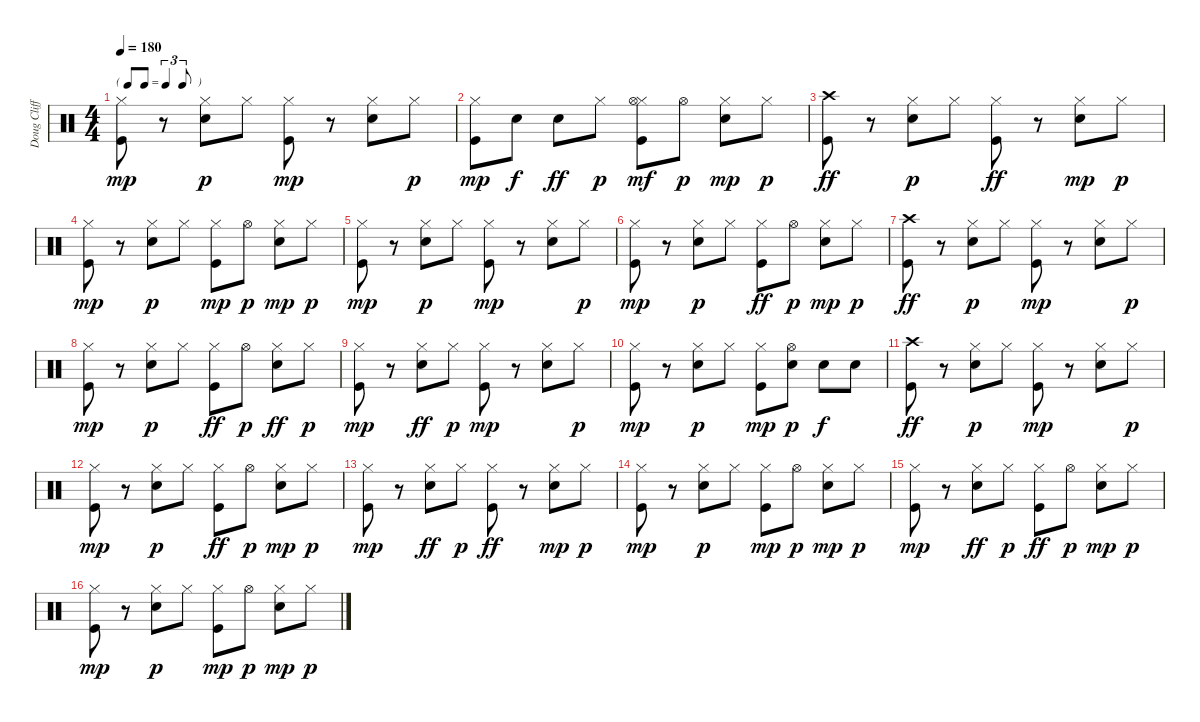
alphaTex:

\track ("Doug Clifford" "Doug Cliff") {instrument percussion}
\staff {score}
\articulation defaults
\ts (4 4)
\tf triplet8th
\tempo 180
\clef neutral
\ks c
("Kick (hit)" "Hi-Hat (closed)").8{dy mp} r.8 ("Snare (hit) 2" "Hi-Hat (closed)").8{dy p} "Hi-Hat (closed)".8 ("Kick (hit)" "Hi-Hat (closed)").8{dy mp} r.8 ("Snare (hit) 2" "Hi-Hat (closed)").8 "Hi-Hat (closed)".8{dy p} |
("Kick (hit)" "Hi-Hat (closed)").8{dy mp} "Snare (hit) 2".8{dy f} "Snare (hit) 2".8{dy ff} "Hi-Hat (closed)".8{dy p} ("Kick (hit)" "Hi-Hat (closed)" "Hi-Hat (open)").8{dy mf} "Hi-Hat (open)".8{dy p} ("Snare (hit) 2" "Hi-Hat (closed)").8{dy mp} "Hi-Hat (closed)".8{dy p} |
("Crash high (hit)" "Kick (hit)").8{dy ff} r.8 ("Snare (hit) 2" "Hi-Hat (closed)").8{dy p} "Hi-Hat (closed)".8 ("Hi-Hat (closed)" "Kick (hit)").8{dy ff} r.8 ("Snare (hit) 2" "Hi-Hat (closed)").8{dy mp} "Hi-Hat (closed)".8{dy p} |
("Kick (hit)" "Hi-Hat (closed)").8{dy mp} r.8 ("Snare (hit) 2" "Hi-Hat (closed)").8{dy p} "Hi-Hat (closed)".8 ("Kick (hit)" "Hi-Hat (closed)").8{dy mp} "Hi-Hat (open)".8{dy p} ("Snare (hit) 2" "Hi-Hat (closed)").8{dy mp} "Hi-Hat (closed)".8{dy p} |
("Kick (hit)" "Hi-Hat (closed)").8{dy mp} r.8 ("Snare (hit) 2" "Hi-Hat (closed)").8{dy p} "Hi-Hat (closed)".8 ("Kick (hit)" "Hi-Hat (closed)").8{dy mp} r.8 ("Snare (hit) 2" "Hi-Hat (closed)").8 "Hi-Hat (closed)".8{dy p} |
("Kick (hit)" "Hi-Hat (closed)").8{dy mp} r.8 ("Snare (hit) 2" "Hi-Hat (closed)").8{dy p} "Hi-Hat (closed)".8 ("Hi-Hat (closed)" "Kick (hit)").8{dy ff} "Hi-Hat (open)".8{dy p} ("Snare (hit) 2" "Hi-Hat (closed)").8{dy mp} "Hi-Hat (closed)".8{dy p} |
("Crash high (hit)" "Kick (hit)").8{dy ff} r.8 ("Snare (hit) 2" "Hi-Hat (closed)").8{dy p} "Hi-Hat (closed)".8 ("Kick (hit)" "Hi-Hat (closed)").8{dy mp} r.8 ("Snare (hit) 2" "Hi-Hat (closed)").8 "Hi-Hat (closed)".8{dy p} |
("Kick (hit)" "Hi-Hat (closed)").8{dy mp} r.8 ("Snare (hit) 2" "Hi-Hat (closed)").8{dy p} "Hi-Hat (closed)".8 ("Hi-Hat (closed)" "Kick (hit)").8{dy ff} "Hi-Hat (open)".8{dy p} ("Hi-Hat (closed)" "Snare (hit) 2").8{dy ff} "Hi-Hat (closed)".8{dy p} |
("Kick (hit)" "Hi-Hat (closed)").8{dy mp} r.8 ("Hi-Hat (closed)" "Snare (hit) 2").8{dy ff} "Hi-Hat (closed)".8{dy p} ("Kick (hit)" "Hi-Hat (closed)").8{dy mp} r.8 ("Snare (hit) 2" "Hi-Hat (closed)").8 "Hi-Hat (closed)".8{dy p} |
("Kick (hit)" "Hi-Hat (closed)").8{dy mp} r.8 ("Snare (hit) 2" "Hi-Hat (closed)").8{dy p} "Hi-Hat (closed)".8 ("Kick (hit)" "Hi-Hat (closed)").8{dy mp} ("Hi-Hat (open)" "Snare (hit) 2").8{dy p} "Snare (hit) 2".8{dy f} "Snare (hit) 2".8 |
("Crash high (hit)" "Kick (hit)").8{dy ff} r.8 ("Snare (hit) 2" "Hi-Hat (closed)").8{dy p} "Hi-Hat (closed)".8 ("Kick (hit)" "Hi-Hat (closed)").8{dy mp} r.8 ("Snare (hit) 2" "Hi-Hat (closed)").8 "Hi-Hat (closed)".8{dy p} |
("Kick (hit)" "Hi-Hat (closed)").8{dy mp} r.8 ("Snare (hit) 2" "Hi-Hat (closed)").8{dy p} "Hi-Hat (closed)".8 ("Hi-Hat (closed)" "Kick (hit)").8{dy ff} "Hi-Hat (open)".8{dy p} ("Snare (hit) 2" "Hi-Hat (closed)").8{dy mp} "Hi-Hat (closed)".8{dy p} |
("Kick (hit)" "Hi-Hat (closed)").8{dy mp} r.8 ("Hi-Hat (closed)" "Snare (hit) 2").8{dy ff} "Hi-Hat (closed)".8{dy p} ("Hi-Hat (closed)" "Kick (hit)").8{dy ff} r.8 ("Snare (hit) 2" "Hi-Hat (closed)").8{dy mp} "Hi-Hat (closed)".8{dy p} |
("Kick (hit)" "Hi-Hat (closed)").8{dy mp} r.8 ("Snare (hit) 2" "Hi-Hat (closed)").8{dy p} "Hi-Hat (closed)".8 ("Kick (hit)" "Hi-Hat (closed)").8{dy mp} "Hi-Hat (open)".8{dy p} ("Snare (hit) 2" "Hi-Hat (closed)").8{dy mp} "Hi-Hat (closed)".8{dy p} |
("Kick (hit)" "Hi-Hat (closed)").8{dy mp} r.8 ("Hi-Hat (closed)" "Snare (hit) 2").8{dy ff} "Hi-Hat (closed)".8{dy p} ("Hi-Hat (closed)" "Kick (hit)").8{dy ff} "Hi-Hat (open)".8{dy p} ("Snare (hit) 2" "Hi-Hat (closed)").8{dy mp} "Hi-Hat (closed)".8{dy p} |
("Kick (hit)" "Hi-Hat (closed)").8{dy mp} r.8 ("Snare (hit) 2" "Hi-Hat (closed)").8{dy p} "Hi-Hat (closed)".8 ("Kick (hit)" "Hi-Hat (closed)").8{dy mp} "Hi-Hat (open)".8{dy p} ("Snare (hit) 2" "Hi-Hat (closed)").8{dy mp} "Hi-Hat (closed)".8{dy p}
